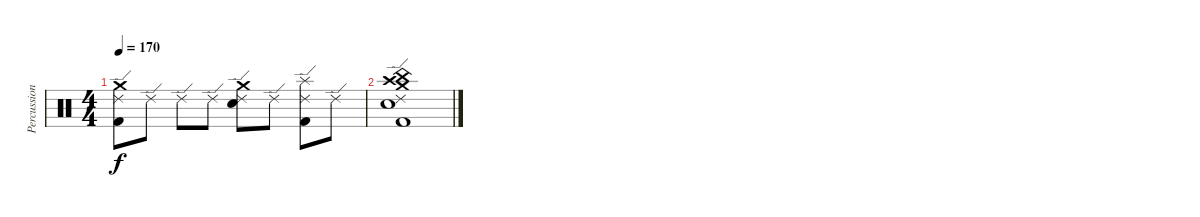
\track ("Percussion" "Percussion") {instrument percussion}
\staff {score}
\articulation defaults
\ts (4 4)
\tempo 170
\clef neutral
\ks c
("Crash medium (hit)" "Kick (hit) 2" "Ride (edge) 2").8{dy f} "Ride (edge) 2".8 "Ride (edge) 2".8 "Ride (edge) 2".8 ("Crash medium (hit)" "Snare (hit) 2" "Ride (edge) 2").8 "Ride (edge) 2".8 ("Splash (hit)" "Kick (hit) 2" "Ride (edge) 2").8 "Ride (edge) 2".8 |
("China (hit)" "Crash medium (hit)" "Kick (hit) 2" "Crash high (hit)" "Ride (edge) 2" "Snare (hit) 2").1
